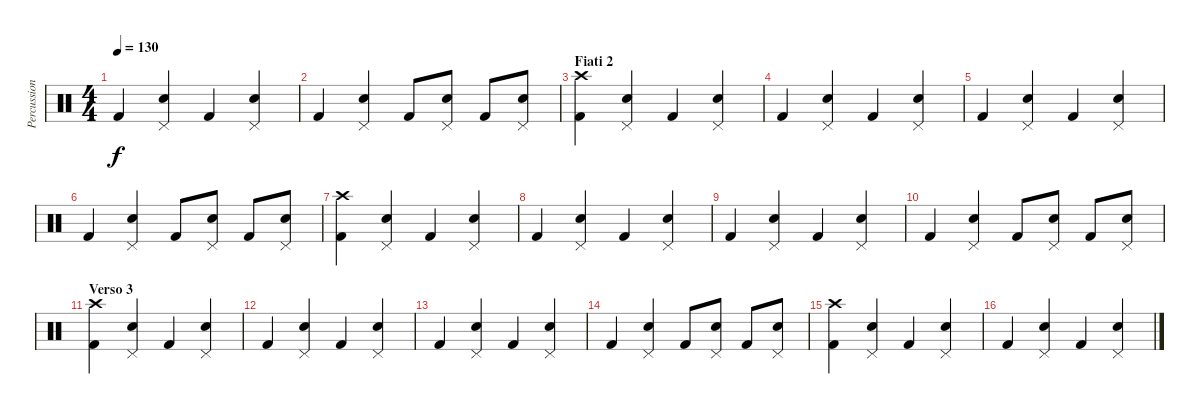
\track ("Percussioni" "Percussion") {instrument percussion}
\staff {score}
\articulation defaults
\ts (4 4)
\tempo 130
\clef neutral
\ks c "Kick (hit) 2".4{dy f}
("Pedal Hi-Hat (hit)" "Snare (hit) 2").4 "Kick (hit) 2".4 ("Pedal Hi-Hat (hit)" "Snare (hit) 2").4 |
"Kick (hit) 2".4 ("Pedal Hi-Hat (hit)" "Snare (hit) 2").4 "Kick (hit) 2".8 ("Pedal Hi-Hat (hit)" "Snare (hit) 2").8 "Kick (hit) 2".8 ("Pedal Hi-Hat (hit)" "Snare (hit) 2").8 |
\section ("" "Fiati 2")
("Crash high (hit)" "Kick (hit) 2").4{volume 11} ("Pedal Hi-Hat (hit)" "Snare (hit) 2").4 "Kick (hit) 2".4 ("Pedal Hi-Hat (hit)" "Snare (hit) 2").4 |
"Kick (hit) 2".4 ("Pedal Hi-Hat (hit)" "Snare (hit) 2").4 "Kick (hit) 2".4 ("Pedal Hi-Hat (hit)" "Snare (hit) 2").4 |
"Kick (hit) 2".4 ("Pedal Hi-Hat (hit)" "Snare (hit) 2").4 "Kick (hit) 2".4 ("Pedal Hi-Hat (hit)" "Snare (hit) 2").4 |
"Kick (hit) 2".4 ("Pedal Hi-Hat (hit)" "Snare (hit) 2").4 "Kick (hit) 2".8 ("Pedal Hi-Hat (hit)" "Snare (hit) 2").8 "Kick (hit) 2".8 ("Pedal Hi-Hat (hit)" "Snare (hit) 2").8 |
("Crash high (hit)" "Kick (hit) 2").4 ("Pedal Hi-Hat (hit)" "Snare (hit) 2").4 "Kick (hit) 2".4 ("Pedal Hi-Hat (hit)" "Snare (hit) 2").4 |
"Kick (hit) 2".4 ("Pedal Hi-Hat (hit)" "Snare (hit) 2").4 "Kick (hit) 2".4 ("Pedal Hi-Hat (hit)" "Snare (hit) 2").4 |
"Kick (hit) 2".4 ("Pedal Hi-Hat (hit)" "Snare (hit) 2").4 "Kick (hit) 2".4 ("Pedal Hi-Hat (hit)" "Snare (hit) 2").4 |
"Kick (hit) 2".4 ("Pedal Hi-Hat (hit)" "Snare (hit) 2").4 "Kick (hit) 2".8 ("Pedal Hi-Hat (hit)" "Snare (hit) 2").8 "Kick (hit) 2".8 ("Pedal Hi-Hat (hit)" "Snare (hit) 2").8 |
\section ("" "Verso 3")
("Crash high (hit)" "Kick (hit) 2").4 ("Pedal Hi-Hat (hit)" "Snare (hit) 2").4 "Kick (hit) 2".4 ("Pedal Hi-Hat (hit)" "Snare (hit) 2").4 |
"Kick (hit) 2".4 ("Pedal Hi-Hat (hit)" "Snare (hit) 2").4 "Kick (hit) 2".4 ("Pedal Hi-Hat (hit)" "Snare (hit) 2").4 |
"Kick (hit) 2".4 ("Pedal Hi-Hat (hit)" "Snare (hit) 2").4 "Kick (hit) 2".4 ("Pedal Hi-Hat (hit)" "Snare (hit) 2").4 |
"Kick (hit) 2".4 ("Pedal Hi-Hat (hit)" "Snare (hit) 2").4 "Kick (hit) 2".8 ("Pedal Hi-Hat (hit)" "Snare (hit) 2").8 "Kick (hit) 2".8 ("Pedal Hi-Hat (hit)" "Snare (hit) 2").8 |
("Crash high (hit)" "Kick (hit) 2").4 ("Pedal Hi-Hat (hit)" "Snare (hit) 2").4 "Kick (hit) 2".4 ("Pedal Hi-Hat (hit)" "Snare (hit) 2").4 |
"Kick (hit) 2".4 ("Pedal Hi-Hat (hit)" "Snare (hit) 2").4 "Kick (hit) 2".4 ("Pedal Hi-Hat (hit)" "Snare (hit) 2").4
